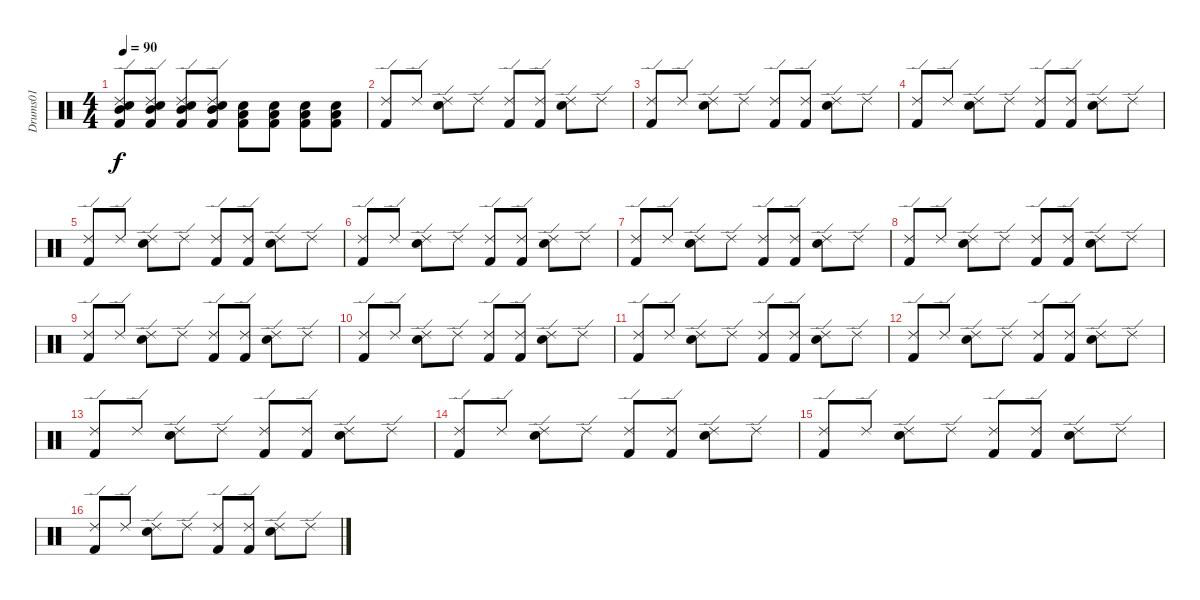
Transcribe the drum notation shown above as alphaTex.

\track ("Drums01" "Drums01") {instrument percussion}
\staff {score}
\articulation defaults
\ts (4 4)
\tempo 90
\clef neutral
\ks c
("Ride (edge) 2" "Mid Tom (hit)" "Snare (hit) 2" "Kick (hit) 2").8{dy f} ("Ride (edge) 2" "Mid Tom (hit)" "Snare (hit) 2" "Kick (hit) 2").8 ("Ride (edge) 2" "Mid Tom (hit)" "Snare (hit) 2" "Kick (hit) 2").8 ("Ride (edge) 2" "Mid Tom (hit)" "Snare (hit) 2" "Kick (hit) 2").8 ("Low Tom (hit)" "Snare (hit) 2" "Kick (hit) 2").8 ("Low Tom (hit)" "Snare (hit) 2" "Kick (hit) 2").8 ("Low Tom (hit)" "Snare (hit) 2" "Kick (hit) 2").8 ("Low Tom (hit)" "Snare (hit) 2" "Kick (hit) 2").8 |
("Ride (edge) 2" "Kick (hit) 2").8 "Ride (edge) 2".8 ("Ride (edge) 2" "Snare (hit) 2").8 "Ride (edge) 2".8 ("Ride (edge) 2" "Kick (hit) 2").8 ("Ride (edge) 2" "Kick (hit) 2").8 ("Ride (edge) 2" "Snare (hit) 2").8 "Ride (edge) 2".8 |
("Ride (edge) 2" "Kick (hit) 2").8 "Ride (edge) 2".8 ("Ride (edge) 2" "Snare (hit) 2").8 "Ride (edge) 2".8 ("Ride (edge) 2" "Kick (hit) 2").8 ("Ride (edge) 2" "Kick (hit) 2").8 ("Ride (edge) 2" "Snare (hit) 2").8 "Ride (edge) 2".8 |
("Ride (edge) 2" "Kick (hit) 2").8 "Ride (edge) 2".8 ("Ride (edge) 2" "Snare (hit) 2").8 "Ride (edge) 2".8 ("Ride (edge) 2" "Kick (hit) 2").8 ("Ride (edge) 2" "Kick (hit) 2").8 ("Ride (edge) 2" "Snare (hit) 2").8 "Ride (edge) 2".8 |
("Ride (edge) 2" "Kick (hit) 2").8 "Ride (edge) 2".8 ("Ride (edge) 2" "Snare (hit) 2").8 "Ride (edge) 2".8 ("Ride (edge) 2" "Kick (hit) 2").8 ("Ride (edge) 2" "Kick (hit) 2").8 ("Ride (edge) 2" "Snare (hit) 2").8 "Ride (edge) 2".8 |
("Ride (edge) 2" "Kick (hit) 2").8 "Ride (edge) 2".8 ("Ride (edge) 2" "Snare (hit) 2").8 "Ride (edge) 2".8 ("Ride (edge) 2" "Kick (hit) 2").8 ("Ride (edge) 2" "Kick (hit) 2").8 ("Ride (edge) 2" "Snare (hit) 2").8 "Ride (edge) 2".8 |
("Ride (edge) 2" "Kick (hit) 2").8 "Ride (edge) 2".8 ("Ride (edge) 2" "Snare (hit) 2").8 "Ride (edge) 2".8 ("Ride (edge) 2" "Kick (hit) 2").8 ("Ride (edge) 2" "Kick (hit) 2").8 ("Ride (edge) 2" "Snare (hit) 2").8 "Ride (edge) 2".8 |
("Ride (edge) 2" "Kick (hit) 2").8 "Ride (edge) 2".8 ("Ride (edge) 2" "Snare (hit) 2").8 "Ride (edge) 2".8 ("Ride (edge) 2" "Kick (hit) 2").8 ("Ride (edge) 2" "Kick (hit) 2").8 ("Ride (edge) 2" "Snare (hit) 2").8 "Ride (edge) 2".8 |
("Ride (edge) 2" "Kick (hit) 2").8 "Ride (edge) 2".8 ("Ride (edge) 2" "Snare (hit) 2").8 "Ride (edge) 2".8 ("Ride (edge) 2" "Kick (hit) 2").8 ("Ride (edge) 2" "Kick (hit) 2").8 ("Ride (edge) 2" "Snare (hit) 2").8 "Ride (edge) 2".8 |
("Ride (edge) 2" "Kick (hit) 2").8 "Ride (edge) 2".8 ("Ride (edge) 2" "Snare (hit) 2").8 "Ride (edge) 2".8 ("Ride (edge) 2" "Kick (hit) 2").8 ("Ride (edge) 2" "Kick (hit) 2").8 ("Ride (edge) 2" "Snare (hit) 2").8 "Ride (edge) 2".8 |
("Ride (edge) 2" "Kick (hit) 2").8 "Ride (edge) 2".8 ("Ride (edge) 2" "Snare (hit) 2").8 "Ride (edge) 2".8 ("Ride (edge) 2" "Kick (hit) 2").8 ("Ride (edge) 2" "Kick (hit) 2").8 ("Ride (edge) 2" "Snare (hit) 2").8 "Ride (edge) 2".8 |
("Ride (edge) 2" "Kick (hit) 2").8 "Ride (edge) 2".8 ("Ride (edge) 2" "Snare (hit) 2").8 "Ride (edge) 2".8 ("Ride (edge) 2" "Kick (hit) 2").8 ("Ride (edge) 2" "Kick (hit) 2").8 ("Ride (edge) 2" "Snare (hit) 2").8 "Ride (edge) 2".8 |
("Ride (edge) 2" "Kick (hit) 2").8 "Ride (edge) 2".8 ("Ride (edge) 2" "Snare (hit) 2").8 "Ride (edge) 2".8 ("Ride (edge) 2" "Kick (hit) 2").8 ("Ride (edge) 2" "Kick (hit) 2").8 ("Ride (edge) 2" "Snare (hit) 2").8 "Ride (edge) 2".8 |
("Ride (edge) 2" "Kick (hit) 2").8 "Ride (edge) 2".8 ("Ride (edge) 2" "Snare (hit) 2").8 "Ride (edge) 2".8 ("Ride (edge) 2" "Kick (hit) 2").8 ("Ride (edge) 2" "Kick (hit) 2").8 ("Ride (edge) 2" "Snare (hit) 2").8 "Ride (edge) 2".8 |
("Ride (edge) 2" "Kick (hit) 2").8 "Ride (edge) 2".8 ("Ride (edge) 2" "Snare (hit) 2").8 "Ride (edge) 2".8 ("Ride (edge) 2" "Kick (hit) 2").8 ("Ride (edge) 2" "Kick (hit) 2").8 ("Ride (edge) 2" "Snare (hit) 2").8 "Ride (edge) 2".8 |
("Ride (edge) 2" "Kick (hit) 2").8 "Ride (edge) 2".8 ("Ride (edge) 2" "Snare (hit) 2").8 "Ride (edge) 2".8 ("Ride (edge) 2" "Kick (hit) 2").8 ("Ride (edge) 2" "Kick (hit) 2").8 ("Ride (edge) 2" "Snare (hit) 2").8 "Ride (edge) 2".8
